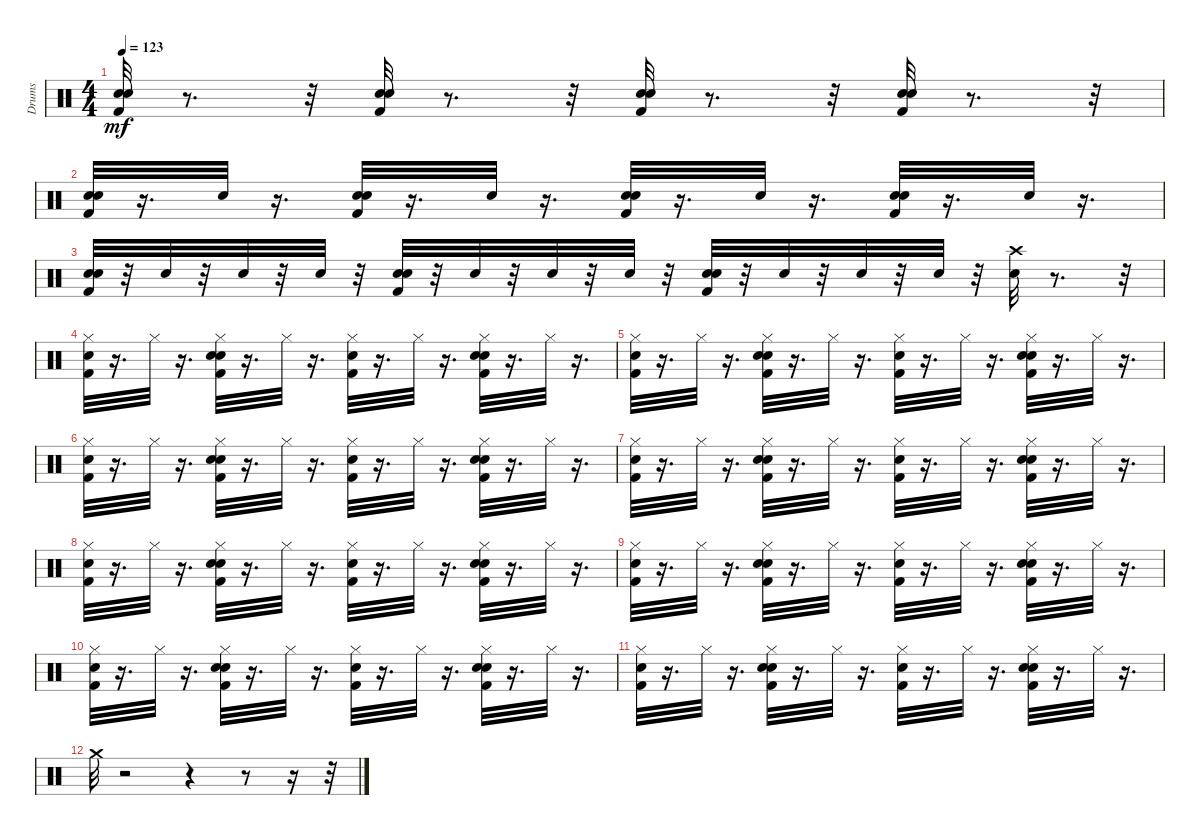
\track ("Drums" "Drums") {instrument percussion}
\staff {score}
\articulation defaults
\ts (4 4)
\tempo 123
\clef neutral
\ks c
("Kick (hit) 2" "Hand Clap (hit)" "Electric Snare (hit)").32{dy mf} r.8{d} r.32 ("Kick (hit) 2" "Hand Clap (hit)" "Electric Snare (hit)").32 r.8{d} r.32 ("Kick (hit) 2" "Hand Clap (hit)" "Electric Snare (hit)").32 r.8{d} r.32 ("Kick (hit) 2" "Hand Clap (hit)" "Electric Snare (hit)").32 r.8{d} r.32 |
("Kick (hit) 2" "Hand Clap (hit)" "Electric Snare (hit)").32 r.16{d} "Snare (hit) 2".32 r.16{d} ("Kick (hit) 2" "Hand Clap (hit)" "Electric Snare (hit)").32 r.16{d} "Snare (hit) 2".32 r.16{d} ("Kick (hit) 2" "Hand Clap (hit)" "Electric Snare (hit)").32 r.16{d} "Snare (hit) 2".32 r.16{d} ("Kick (hit) 2" "Hand Clap (hit)" "Electric Snare (hit)").32 r.16{d} "Snare (hit) 2".32 r.16{d} |
("Kick (hit) 2" "Hand Clap (hit)" "Electric Snare (hit)").32 r.32 "Snare (hit) 2".32 r.32 "Electric Snare (hit)".32 r.32 "Snare (hit) 2".32 r.32 ("Kick (hit) 2" "Hand Clap (hit)" "Electric Snare (hit)").32 r.32 "Snare (hit) 2".32 r.32 "Electric Snare (hit)".32 r.32 "Snare (hit) 2".32 r.32 ("Kick (hit) 2" "Hand Clap (hit)" "Electric Snare (hit)").32 r.32 "Snare (hit) 2".32 r.32 "Electric Snare (hit)".32 r.32 "Snare (hit) 2".32 r.32 ("Hand Clap (hit)" "Crash high (hit)").32 r.8{d} r.32 |
("Kick (hit) 2" "Hand Clap (hit)" "Hi-Hat (closed)").32 r.16{d} "Hi-Hat (closed)".32 r.16{d} ("Kick (hit) 2" "Snare (hit) 2" "Hand Clap (hit)" "Hi-Hat (closed)").32 r.16{d} "Hi-Hat (closed)".32 r.16{d} ("Kick (hit) 2" "Hand Clap (hit)" "Hi-Hat (closed)").32 r.16{d} "Hi-Hat (closed)".32 r.16{d} ("Kick (hit) 2" "Snare (hit) 2" "Hand Clap (hit)" "Hi-Hat (closed)").32 r.16{d} "Hi-Hat (closed)".32 r.16{d} |
("Kick (hit) 2" "Hand Clap (hit)" "Hi-Hat (closed)").32 r.16{d} "Hi-Hat (closed)".32 r.16{d} ("Kick (hit) 2" "Snare (hit) 2" "Hand Clap (hit)" "Hi-Hat (closed)").32 r.16{d} "Hi-Hat (closed)".32 r.16{d} ("Kick (hit) 2" "Hand Clap (hit)" "Hi-Hat (closed)").32 r.16{d} "Hi-Hat (closed)".32 r.16{d} ("Kick (hit) 2" "Snare (hit) 2" "Hand Clap (hit)" "Hi-Hat (closed)").32 r.16{d} "Hi-Hat (closed)".32 r.16{d} |
("Kick (hit) 2" "Hand Clap (hit)" "Hi-Hat (closed)").32 r.16{d} "Hi-Hat (closed)".32 r.16{d} ("Kick (hit) 2" "Snare (hit) 2" "Hand Clap (hit)" "Hi-Hat (closed)").32 r.16{d} "Hi-Hat (closed)".32 r.16{d} ("Kick (hit) 2" "Hand Clap (hit)" "Hi-Hat (closed)").32 r.16{d} "Hi-Hat (closed)".32 r.16{d} ("Kick (hit) 2" "Snare (hit) 2" "Hand Clap (hit)" "Hi-Hat (closed)").32 r.16{d} "Hi-Hat (closed)".32 r.16{d} |
("Kick (hit) 2" "Hand Clap (hit)" "Hi-Hat (closed)").32 r.16{d} "Hi-Hat (closed)".32 r.16{d} ("Kick (hit) 2" "Snare (hit) 2" "Hand Clap (hit)" "Hi-Hat (closed)").32 r.16{d} "Hi-Hat (closed)".32 r.16{d} ("Kick (hit) 2" "Hand Clap (hit)" "Hi-Hat (closed)").32 r.16{d} "Hi-Hat (closed)".32 r.16{d} ("Kick (hit) 2" "Snare (hit) 2" "Hand Clap (hit)" "Hi-Hat (closed)").32 r.16{d} "Hi-Hat (closed)".32 r.16{d} |
("Kick (hit) 2" "Hand Clap (hit)" "Hi-Hat (closed)").32 r.16{d} "Hi-Hat (closed)".32 r.16{d} ("Kick (hit) 2" "Snare (hit) 2" "Hand Clap (hit)" "Hi-Hat (closed)").32 r.16{d} "Hi-Hat (closed)".32 r.16{d} ("Kick (hit) 2" "Hand Clap (hit)" "Hi-Hat (closed)").32 r.16{d} "Hi-Hat (closed)".32 r.16{d} ("Kick (hit) 2" "Snare (hit) 2" "Hand Clap (hit)" "Hi-Hat (closed)").32 r.16{d} "Hi-Hat (closed)".32 r.16{d} |
("Kick (hit) 2" "Hand Clap (hit)" "Hi-Hat (closed)").32 r.16{d} "Hi-Hat (closed)".32 r.16{d} ("Kick (hit) 2" "Snare (hit) 2" "Hand Clap (hit)" "Hi-Hat (closed)").32 r.16{d} "Hi-Hat (closed)".32 r.16{d} ("Kick (hit) 2" "Hand Clap (hit)" "Hi-Hat (closed)").32 r.16{d} "Hi-Hat (closed)".32 r.16{d} ("Kick (hit) 2" "Snare (hit) 2" "Hand Clap (hit)" "Hi-Hat (closed)").32 r.16{d} "Hi-Hat (closed)".32 r.16{d} |
("Kick (hit) 2" "Hand Clap (hit)" "Hi-Hat (closed)").32 r.16{d} "Hi-Hat (closed)".32 r.16{d} ("Kick (hit) 2" "Snare (hit) 2" "Hand Clap (hit)" "Hi-Hat (closed)").32 r.16{d} "Hi-Hat (closed)".32 r.16{d} ("Kick (hit) 2" "Hand Clap (hit)" "Hi-Hat (closed)").32 r.16{d} "Hi-Hat (closed)".32 r.16{d} ("Kick (hit) 2" "Snare (hit) 2" "Hand Clap (hit)" "Hi-Hat (closed)").32 r.16{d} "Hi-Hat (closed)".32 r.16{d} |
("Kick (hit) 2" "Hand Clap (hit)" "Hi-Hat (closed)").32 r.16{d} "Hi-Hat (closed)".32 r.16{d} ("Kick (hit) 2" "Snare (hit) 2" "Hand Clap (hit)" "Hi-Hat (closed)").32 r.16{d} "Hi-Hat (closed)".32 r.16{d} ("Kick (hit) 2" "Hand Clap (hit)" "Hi-Hat (closed)").32 r.16{d} "Hi-Hat (closed)".32 r.16{d} ("Kick (hit) 2" "Snare (hit) 2" "Hand Clap (hit)" "Hi-Hat (closed)").32 r.16{d} "Hi-Hat (closed)".32 r.16{d} |
"Crash medium (hit)".32 r.2 r.4 r.8 r.16 r.32
